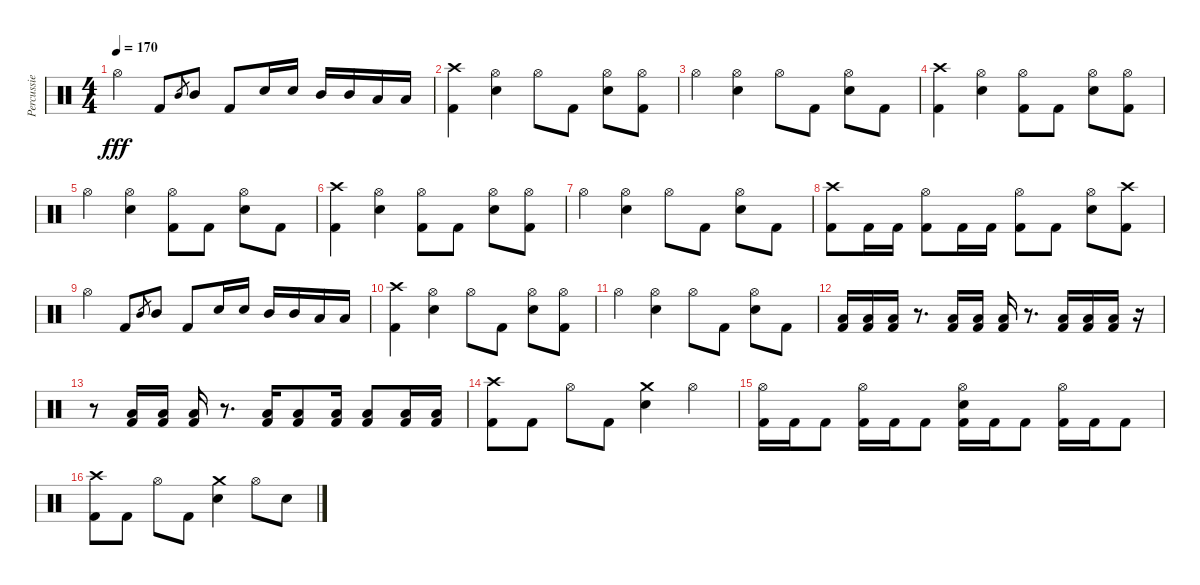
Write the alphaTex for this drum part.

\track ("Percussie" "Percussie") {instrument percussion}
\staff {score}
\articulation defaults
\ts (4 4)
\tempo 170
\clef neutral
\ks c "Hi-Hat (open)".4{dy fff} "Kick (hit) 2".8 "Mid Tom (hit)".8{gr} "Mid Tom (hit)".8 "Kick (hit) 2".8 "Electric Snare (hit)".16 "Electric Snare (hit)".16 "Mid Tom (hit)".16 "Mid Tom (hit)".16 "Low Tom (hit)".16 "Low Tom (hit)".16
|
("Crash high (hit)" "Kick (hit) 2").4 ("Hi-Hat (open)" "Electric Snare (hit)").4 "Hi-Hat (open)".8 "Kick (hit) 2".8 ("Hi-Hat (open)" "Electric Snare (hit)").8 ("Hi-Hat (open)" "Kick (hit) 2").8 |
"Hi-Hat (open)".4 ("Hi-Hat (open)" "Electric Snare (hit)").4 "Hi-Hat (open)".8 "Kick (hit) 2".8 ("Hi-Hat (open)" "Electric Snare (hit)").8 "Kick (hit) 2".8 |
("Crash high (hit)" "Kick (hit) 2").4 ("Hi-Hat (open)" "Electric Snare (hit)").4 ("Hi-Hat (open)" "Kick (hit) 2").8 "Kick (hit) 2".8 ("Hi-Hat (open)" "Electric Snare (hit)").8 ("Hi-Hat (open)" "Kick (hit) 2").8 |
"Hi-Hat (open)".4 ("Hi-Hat (open)" "Electric Snare (hit)").4 ("Hi-Hat (open)" "Kick (hit) 2").8 "Kick (hit) 2".8 ("Hi-Hat (open)" "Electric Snare (hit)").8 "Kick (hit) 2".8 |
("Crash high (hit)" "Kick (hit) 2").4 ("Hi-Hat (open)" "Electric Snare (hit)").4 ("Hi-Hat (open)" "Kick (hit) 2").8 "Kick (hit) 2".8 ("Hi-Hat (open)" "Electric Snare (hit)").8 ("Hi-Hat (open)" "Kick (hit) 2").8 |
"Hi-Hat (open)".4 ("Hi-Hat (open)" "Electric Snare (hit)").4 "Hi-Hat (open)".8 "Kick (hit) 2".8 ("Hi-Hat (open)" "Electric Snare (hit)").8 "Kick (hit) 2".8 |
("Crash high (hit)" "Kick (hit) 2").8 "Kick (hit) 2".16 "Kick (hit) 2".16 ("Hi-Hat (open)" "Kick (hit) 2").8 "Kick (hit) 2".16 "Kick (hit) 2".16 ("Hi-Hat (open)" "Kick (hit) 2").8 "Kick (hit) 2".8 ("Hi-Hat (open)" "Electric Snare (hit)").8 ("Crash high (hit)" "Kick (hit) 2").8 |
"Hi-Hat (open)".4 "Kick (hit) 2".8 "Mid Tom (hit)".8{gr} "Mid Tom (hit)".8 "Kick (hit) 2".8 "Electric Snare (hit)".16 "Electric Snare (hit)".16 "Mid Tom (hit)".16 "Mid Tom (hit)".16 "Low Tom (hit)".16 "Low Tom (hit)".16 |
("Crash high (hit)" "Kick (hit) 2").4 ("Hi-Hat (open)" "Electric Snare (hit)").4 "Hi-Hat (open)".8 "Kick (hit) 2".8 ("Hi-Hat (open)" "Electric Snare (hit)").8 ("Hi-Hat (open)" "Kick (hit) 2").8 |
"Hi-Hat (open)".4 ("Hi-Hat (open)" "Electric Snare (hit)").4 "Hi-Hat (open)".8 "Kick (hit) 2".8 ("Hi-Hat (open)" "Electric Snare (hit)").8 "Kick (hit) 2".8 |
("Low Floor Tom (hit)" "Kick (hit) 2").16 ("Low Floor Tom (hit)" "Kick (hit) 2").16 ("Low Floor Tom (hit)" "Kick (hit) 2").16 r.8{d} ("Low Floor Tom (hit)" "Kick (hit) 2").16 ("Low Floor Tom (hit)" "Kick (hit) 2").16 ("Low Floor Tom (hit)" "Kick (hit) 2").16 r.8{d} ("Low Floor Tom (hit)" "Kick (hit) 2").16 ("Low Floor Tom (hit)" "Kick (hit) 2").16 ("Low Floor Tom (hit)" "Kick (hit) 2").16 r.16 |
r.8 ("Low Floor Tom (hit)" "Kick (hit) 2").16 ("Low Floor Tom (hit)" "Kick (hit) 2").16 ("Low Floor Tom (hit)" "Kick (hit) 2").16 r.8{d} ("Low Floor Tom (hit)" "Kick (hit) 2").16 ("Low Floor Tom (hit)" "Kick (hit) 2").8 ("Low Floor Tom (hit)" "Kick (hit) 2").16 ("Low Floor Tom (hit)" "Kick (hit) 2").8 ("Low Floor Tom (hit)" "Kick (hit) 2").16 ("Low Floor Tom (hit)" "Kick (hit) 2").16 |
("Crash high (hit)" "Kick (hit) 2").8 "Kick (hit) 2".8 "Hi-Hat (open)".8 "Kick (hit) 2".8 ("Crash medium (hit)" "Electric Snare (hit)").4 "Hi-Hat (open)".4 |
("Hi-Hat (open)" "Kick (hit) 2").16 "Kick (hit) 2".16 "Kick (hit) 2".8 ("Hi-Hat (open)" "Kick (hit) 2").16 "Kick (hit) 2".16 "Kick (hit) 2".8 ("Hi-Hat (open)" "Electric Snare (hit)" "Kick (hit) 2").16 "Kick (hit) 2".16 "Kick (hit) 2".8 ("Hi-Hat (open)" "Kick (hit) 2").16 "Kick (hit) 2".16 "Kick (hit) 2".8 |
("Crash high (hit)" "Kick (hit) 2").8 "Kick (hit) 2".8 "Hi-Hat (open)".8 "Kick (hit) 2".8 ("Crash medium (hit)" "Electric Snare (hit)").4 "Hi-Hat (open)".8 "Electric Snare (hit)".8
